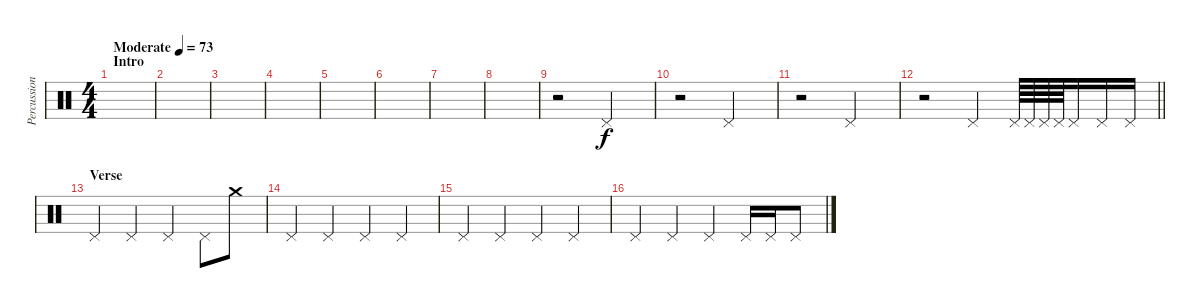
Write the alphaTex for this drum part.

\track ("Percussion" "Percussion") {instrument percussion}
\staff {score}
\articulation defaults
\ts (4 4)
\section ("" "Intro")
\tempo (73 "Moderate")
\clef neutral
\ks c
|
|
|
|
|
|
|
|
r.2 "Pedal Hi-Hat (hit)".2 |
r.2 "Pedal Hi-Hat (hit)".2 |
r.2 "Pedal Hi-Hat (hit)".2 |
\barLineRight lightlight
r.2 "Pedal Hi-Hat (hit)".4 "Pedal Hi-Hat (hit)".64 "Pedal Hi-Hat (hit)".64 "Pedal Hi-Hat (hit)".64 "Pedal Hi-Hat (hit)".64 "Pedal Hi-Hat (hit)".16 "Pedal Hi-Hat (hit)".16 "Pedal Hi-Hat (hit)".16 |
\section ("" "Verse")
"Pedal Hi-Hat (hit)".4 "Pedal Hi-Hat (hit)".4 "Pedal Hi-Hat (hit)".4 "Pedal Hi-Hat (hit)".8 "Crash medium (hit)".8 |
"Pedal Hi-Hat (hit)".4 "Pedal Hi-Hat (hit)".4 "Pedal Hi-Hat (hit)".4 "Pedal Hi-Hat (hit)".4 |
"Pedal Hi-Hat (hit)".4 "Pedal Hi-Hat (hit)".4 "Pedal Hi-Hat (hit)".4 "Pedal Hi-Hat (hit)".4 |
"Pedal Hi-Hat (hit)".4 "Pedal Hi-Hat (hit)".4 "Pedal Hi-Hat (hit)".4 "Pedal Hi-Hat (hit)".16 "Pedal Hi-Hat (hit)".16 "Pedal Hi-Hat (hit)".8
